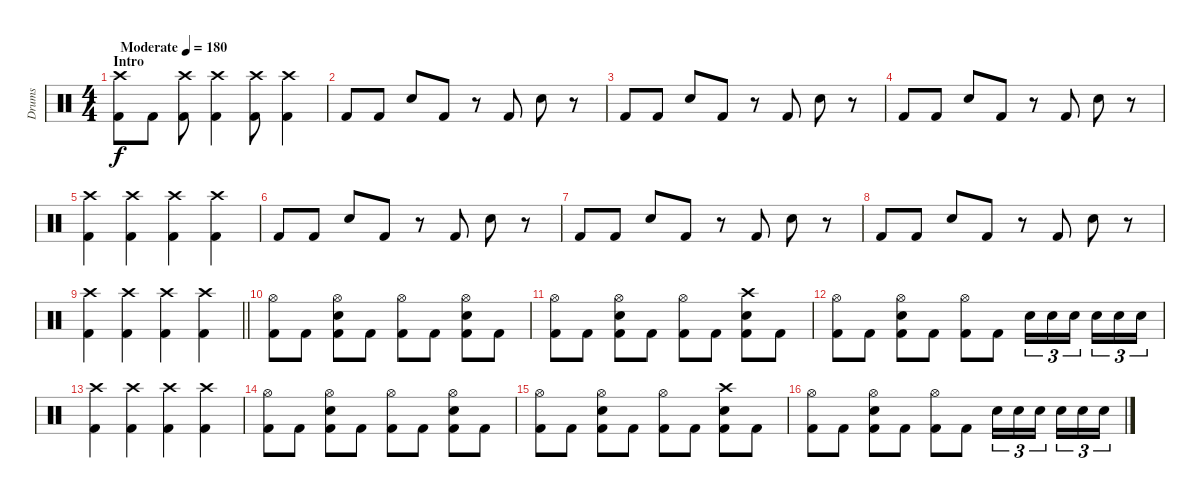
\track ("Drums" "Drums") {instrument percussion}
\staff {score}
\articulation defaults
\ts (4 4)
\section ("" "Intro")
\tempo (180 "Moderate")
\clef neutral
\ks c
("Crash high (hit)" "Kick (hit) 2").8{dy f} "Kick (hit) 2".8 ("Crash high (hit)" "Kick (hit) 2").8 ("Crash high (hit)" "Kick (hit) 2").4 ("Crash high (hit)" "Kick (hit) 2").8 ("Crash high (hit)" "Kick (hit) 2").4 |
"Kick (hit) 2".8 "Kick (hit) 2".8 "Electric Snare (hit)".8 "Kick (hit) 2".8 r.8 "Kick (hit) 2".8 "Electric Snare (hit)".8 r.8 |
"Kick (hit) 2".8 "Kick (hit) 2".8 "Electric Snare (hit)".8 "Kick (hit) 2".8 r.8 "Kick (hit) 2".8 "Electric Snare (hit)".8 r.8 |
"Kick (hit) 2".8 "Kick (hit) 2".8 "Electric Snare (hit)".8 "Kick (hit) 2".8 r.8 "Kick (hit) 2".8 "Electric Snare (hit)".8 r.8 |
("Crash high (hit)" "Kick (hit) 2").4 ("Crash high (hit)" "Kick (hit) 2").4 ("Crash high (hit)" "Kick (hit) 2").4 ("Crash high (hit)" "Kick (hit) 2").4 |
"Kick (hit) 2".8 "Kick (hit) 2".8 "Electric Snare (hit)".8 "Kick (hit) 2".8 r.8 "Kick (hit) 2".8 "Electric Snare (hit)".8 r.8 |
"Kick (hit) 2".8 "Kick (hit) 2".8 "Electric Snare (hit)".8 "Kick (hit) 2".8 r.8 "Kick (hit) 2".8 "Electric Snare (hit)".8 r.8 |
"Kick (hit) 2".8 "Kick (hit) 2".8 "Electric Snare (hit)".8 "Kick (hit) 2".8 r.8 "Kick (hit) 2".8 "Electric Snare (hit)".8 r.8 |
\barLineRight lightlight
("Crash high (hit)" "Kick (hit) 2").4 ("Crash high (hit)" "Kick (hit) 2").4 ("Crash high (hit)" "Kick (hit) 2").4 ("Crash high (hit)" "Kick (hit) 2").4 |
\section ("" "")
("Hi-Hat (open)" "Kick (hit) 2").8 "Kick (hit) 2".8 ("Hi-Hat (open)" "Electric Snare (hit)" "Kick (hit) 2").8 "Kick (hit) 2".8 ("Hi-Hat (open)" "Kick (hit) 2").8 "Kick (hit) 2".8 ("Hi-Hat (open)" "Electric Snare (hit)" "Kick (hit) 2").8 "Kick (hit) 2".8 |
("Hi-Hat (open)" "Kick (hit) 2").8 "Kick (hit) 2".8 ("Hi-Hat (open)" "Electric Snare (hit)" "Kick (hit) 2").8 "Kick (hit) 2".8 ("Hi-Hat (open)" "Kick (hit) 2").8 "Kick (hit) 2".8 ("Crash high (hit)" "Electric Snare (hit)" "Kick (hit) 2").8 "Kick (hit) 2".8 |
("Hi-Hat (open)" "Kick (hit) 2").8 "Kick (hit) 2".8 ("Hi-Hat (open)" "Electric Snare (hit)" "Kick (hit) 2").8 "Kick (hit) 2".8 ("Hi-Hat (open)" "Kick (hit) 2").8 "Kick (hit) 2".8 "Electric Snare (hit)".16{tu (3 2)} "Electric Snare (hit)".16{tu (3 2)} "Electric Snare (hit)".16{tu (3 2) beam splitsecondary} "Electric Snare (hit)".16{tu (3 2)} "Electric Snare (hit)".16{tu (3 2)} "Electric Snare (hit)".16{tu (3 2)} |
("Crash high (hit)" "Kick (hit) 2").4 ("Crash high (hit)" "Kick (hit) 2").4 ("Crash high (hit)" "Kick (hit) 2").4 ("Crash high (hit)" "Kick (hit) 2").4 |
("Hi-Hat (open)" "Kick (hit) 2").8 "Kick (hit) 2".8 ("Hi-Hat (open)" "Electric Snare (hit)" "Kick (hit) 2").8 "Kick (hit) 2".8 ("Hi-Hat (open)" "Kick (hit) 2").8 "Kick (hit) 2".8 ("Hi-Hat (open)" "Electric Snare (hit)" "Kick (hit) 2").8 "Kick (hit) 2".8 |
("Hi-Hat (open)" "Kick (hit) 2").8 "Kick (hit) 2".8 ("Hi-Hat (open)" "Electric Snare (hit)" "Kick (hit) 2").8 "Kick (hit) 2".8 ("Hi-Hat (open)" "Kick (hit) 2").8 "Kick (hit) 2".8 ("Crash high (hit)" "Electric Snare (hit)" "Kick (hit) 2").8 "Kick (hit) 2".8 |
("Hi-Hat (open)" "Kick (hit) 2").8 "Kick (hit) 2".8 ("Hi-Hat (open)" "Electric Snare (hit)" "Kick (hit) 2").8 "Kick (hit) 2".8 ("Hi-Hat (open)" "Kick (hit) 2").8 "Kick (hit) 2".8 "Electric Snare (hit)".16{tu (3 2)} "Electric Snare (hit)".16{tu (3 2)} "Electric Snare (hit)".16{tu (3 2) beam splitsecondary} "Electric Snare (hit)".16{tu (3 2)} "Electric Snare (hit)".16{tu (3 2)} "Electric Snare (hit)".16{tu (3 2)}
